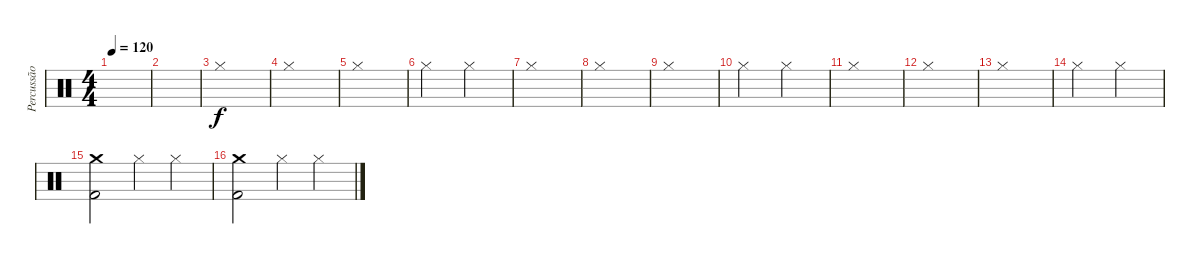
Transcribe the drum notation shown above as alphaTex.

\track ("Percussão" "Percussão") {instrument percussion}
\staff {score}
\articulation defaults
\ts (4 4)
\tempo 120
\clef neutral
\ks c
|
|
"Hi-Hat (closed)".1 |
"Hi-Hat (closed)".1 |
"Hi-Hat (closed)".1 |
"Hi-Hat (closed)".2 "Hi-Hat (closed)".2 |
"Hi-Hat (closed)".1 |
"Hi-Hat (closed)".1 |
"Hi-Hat (closed)".1 |
"Hi-Hat (closed)".2 "Hi-Hat (closed)".2 |
"Hi-Hat (closed)".1 |
"Hi-Hat (closed)".1 |
"Hi-Hat (closed)".1 |
"Hi-Hat (closed)".2 "Hi-Hat (closed)".2 |
("Crash medium (hit)" "Kick (hit) 2").2 "Hi-Hat (closed)".4 "Hi-Hat (closed)".4 |
("Crash medium (hit)" "Kick (hit) 2").2 "Hi-Hat (closed)".4 "Hi-Hat (closed)".4
